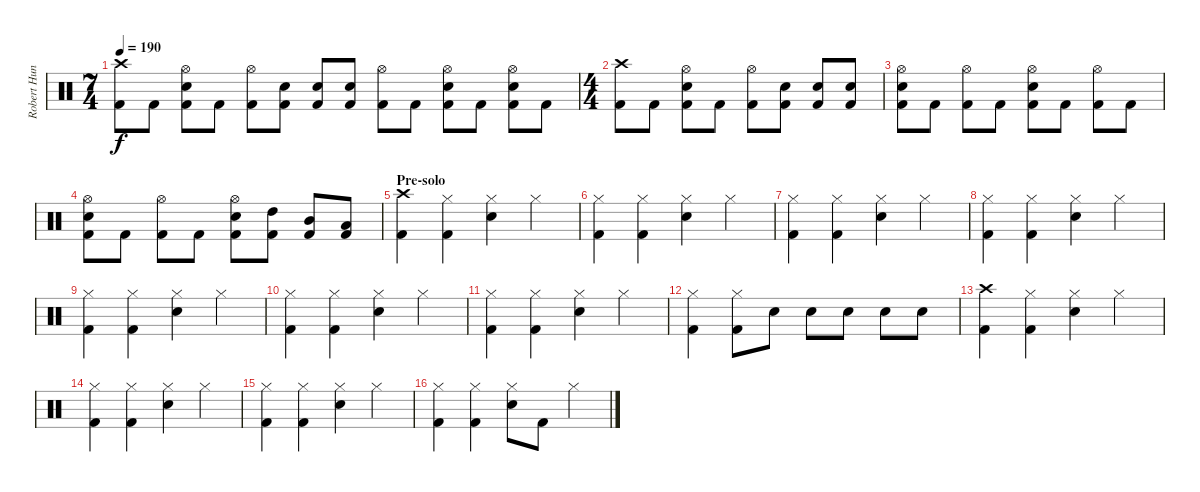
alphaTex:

\track ("Robert Hunecke" "Robert Hun") {instrument percussion}
\staff {score}
\articulation defaults
\ts (7 4)
\tempo 190
\clef neutral
\ks c
("Kick (hit) 2" "Crash high (hit)").8{dy f} "Kick (hit) 2".8 ("Kick (hit) 2" "Electric Snare (hit)" "Hi-Hat (open)").8 "Kick (hit) 2".8 ("Kick (hit) 2" "Hi-Hat (open)").8 ("Kick (hit) 2" "Electric Snare (hit)").8 ("Kick (hit) 2" "Electric Snare (hit)").8 ("Kick (hit) 2" "Electric Snare (hit)").8 ("Kick (hit) 2" "Hi-Hat (open)").8 "Kick (hit) 2".8 ("Kick (hit) 2" "Electric Snare (hit)" "Hi-Hat (open)").8 "Kick (hit) 2".8 ("Kick (hit) 2" "Electric Snare (hit)" "Hi-Hat (open)").8 "Kick (hit) 2".8 |
\ts (4 4)
("Kick (hit) 2" "Crash high (hit)").8 "Kick (hit) 2".8 ("Kick (hit) 2" "Electric Snare (hit)" "Hi-Hat (open)").8 "Kick (hit) 2".8 ("Kick (hit) 2" "Hi-Hat (open)").8 ("Kick (hit) 2" "Electric Snare (hit)").8 ("Kick (hit) 2" "Electric Snare (hit)").8 ("Kick (hit) 2" "Electric Snare (hit)").8 |
("Kick (hit) 2" "Electric Snare (hit)" "Hi-Hat (open)").8 "Kick (hit) 2".8 ("Kick (hit) 2" "Hi-Hat (open)").8 "Kick (hit) 2".8 ("Kick (hit) 2" "Electric Snare (hit)" "Hi-Hat (open)").8 "Kick (hit) 2".8 ("Kick (hit) 2" "Hi-Hat (open)").8 "Kick (hit) 2".8 |
("Kick (hit) 2" "Electric Snare (hit)" "Hi-Hat (open)").8 "Kick (hit) 2".8 ("Kick (hit) 2" "Hi-Hat (open)").8 "Kick (hit) 2".8 ("Kick (hit) 2" "Electric Snare (hit)" "Hi-Hat (open)").8 ("Kick (hit) 2" "High Tom (hit)").8 ("Kick (hit) 2" "Mid Tom (hit)").8 ("Kick (hit) 2" "Low Tom (hit)").8 |
\section ("" "Pre-solo")
("Kick (hit) 2" "Crash high (hit)").4 ("Kick (hit) 2" "Hi-Hat (closed)").4 ("Electric Snare (hit)" "Hi-Hat (closed)").4 "Hi-Hat (closed)".4 |
("Kick (hit) 2" "Hi-Hat (closed)").4 ("Kick (hit) 2" "Hi-Hat (closed)").4 ("Electric Snare (hit)" "Hi-Hat (closed)").4 "Hi-Hat (closed)".4 |
("Kick (hit) 2" "Hi-Hat (closed)").4 ("Kick (hit) 2" "Hi-Hat (closed)").4 ("Electric Snare (hit)" "Hi-Hat (closed)").4 "Hi-Hat (closed)".4 |
("Kick (hit) 2" "Hi-Hat (closed)").4 ("Kick (hit) 2" "Hi-Hat (closed)").4 ("Electric Snare (hit)" "Hi-Hat (closed)").4 "Hi-Hat (closed)".4 |
("Kick (hit) 2" "Hi-Hat (closed)").4 ("Kick (hit) 2" "Hi-Hat (closed)").4 ("Electric Snare (hit)" "Hi-Hat (closed)").4 "Hi-Hat (closed)".4 |
("Kick (hit) 2" "Hi-Hat (closed)").4 ("Kick (hit) 2" "Hi-Hat (closed)").4 ("Electric Snare (hit)" "Hi-Hat (closed)").4 "Hi-Hat (closed)".4 |
("Kick (hit) 2" "Hi-Hat (closed)").4 ("Kick (hit) 2" "Hi-Hat (closed)").4 ("Electric Snare (hit)" "Hi-Hat (closed)").4 "Hi-Hat (closed)".4 |
("Kick (hit) 2" "Hi-Hat (closed)").4 ("Kick (hit) 2" "Hi-Hat (closed)").8 "Electric Snare (hit)".8 "Electric Snare (hit)".8 "Electric Snare (hit)".8 "Electric Snare (hit)".8 "Electric Snare (hit)".8 |
("Kick (hit) 2" "Crash high (hit)").4 ("Kick (hit) 2" "Hi-Hat (closed)").4 ("Electric Snare (hit)" "Hi-Hat (closed)").4 "Hi-Hat (closed)".4 |
("Kick (hit) 2" "Hi-Hat (closed)").4 ("Kick (hit) 2" "Hi-Hat (closed)").4 ("Electric Snare (hit)" "Hi-Hat (closed)").4 "Hi-Hat (closed)".4 |
("Kick (hit) 2" "Hi-Hat (closed)").4 ("Kick (hit) 2" "Hi-Hat (closed)").4 ("Electric Snare (hit)" "Hi-Hat (closed)").4 "Hi-Hat (closed)".4 |
("Kick (hit) 2" "Hi-Hat (closed)").4 ("Kick (hit) 2" "Hi-Hat (closed)").4 ("Electric Snare (hit)" "Hi-Hat (closed)").8 "Kick (hit) 2".8 "Hi-Hat (closed)".4
